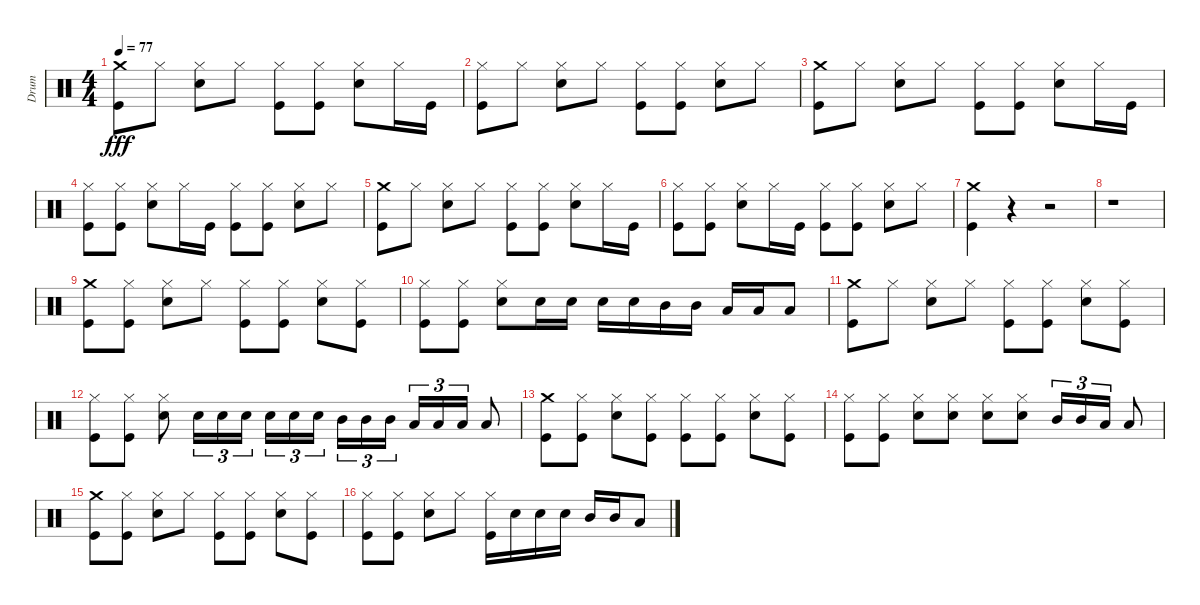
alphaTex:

\track ("Drum" "Drum") {instrument percussion}
\staff {score}
\articulation defaults
\ts (4 4)
\tempo 77
\clef neutral
\ks c
("Crash medium (hit)" "Kick (hit)").8{dy fff} "Hi-Hat (closed)".8 ("Hi-Hat (closed)" "Snare (hit) 2").8 "Hi-Hat (closed)".8 ("Hi-Hat (closed)" "Kick (hit)").8 ("Hi-Hat (closed)" "Kick (hit)").8 ("Hi-Hat (closed)" "Snare (hit) 2").8 "Hi-Hat (closed)".16 "Kick (hit)".16 |
("Hi-Hat (closed)" "Kick (hit)").8 "Hi-Hat (closed)".8 ("Hi-Hat (closed)" "Snare (hit) 2").8 "Hi-Hat (closed)".8 ("Hi-Hat (closed)" "Kick (hit)").8 ("Hi-Hat (closed)" "Kick (hit)").8 ("Hi-Hat (closed)" "Snare (hit) 2").8 "Hi-Hat (closed)".8 |
("Crash medium (hit)" "Kick (hit)").8 "Hi-Hat (closed)".8 ("Hi-Hat (closed)" "Snare (hit) 2").8 "Hi-Hat (closed)".8 ("Hi-Hat (closed)" "Kick (hit)").8 ("Hi-Hat (closed)" "Kick (hit)").8 ("Hi-Hat (closed)" "Snare (hit) 2").8 "Hi-Hat (closed)".16 "Kick (hit)".16 |
("Hi-Hat (closed)" "Kick (hit)").8 ("Hi-Hat (closed)" "Kick (hit)").8 ("Hi-Hat (closed)" "Snare (hit) 2").8 "Hi-Hat (closed)".16 "Kick (hit)".16 ("Hi-Hat (closed)" "Kick (hit)").8 ("Hi-Hat (closed)" "Kick (hit)").8 ("Hi-Hat (closed)" "Snare (hit) 2").8 "Hi-Hat (closed)".8 |
("Crash medium (hit)" "Kick (hit)").8 "Hi-Hat (closed)".8 ("Hi-Hat (closed)" "Snare (hit) 2").8 "Hi-Hat (closed)".8 ("Hi-Hat (closed)" "Kick (hit)").8 ("Hi-Hat (closed)" "Kick (hit)").8 ("Hi-Hat (closed)" "Snare (hit) 2").8 "Hi-Hat (closed)".16 "Kick (hit)".16 |
("Hi-Hat (closed)" "Kick (hit)").8 ("Hi-Hat (closed)" "Kick (hit)").8 ("Hi-Hat (closed)" "Snare (hit) 2").8 "Hi-Hat (closed)".16 "Kick (hit)".16 ("Hi-Hat (closed)" "Kick (hit)").8 ("Hi-Hat (closed)" "Kick (hit)").8 ("Hi-Hat (closed)" "Snare (hit) 2").8 "Hi-Hat (closed)".8 |
("Crash medium (hit)" "Kick (hit)").4 r.4 r.2 |
r.1 |
("Crash medium (hit)" "Kick (hit)").8 ("Hi-Hat (closed)" "Kick (hit)").8 ("Hi-Hat (closed)" "Snare (hit) 2").8 "Hi-Hat (closed)".8 ("Hi-Hat (closed)" "Kick (hit)").8 ("Hi-Hat (closed)" "Kick (hit)").8 ("Hi-Hat (closed)" "Snare (hit) 2").8 ("Hi-Hat (closed)" "Kick (hit)").8 |
("Hi-Hat (closed)" "Kick (hit)").8 ("Hi-Hat (closed)" "Kick (hit)").8 ("Hi-Hat (closed)" "Snare (hit) 2").8 "Snare (hit) 2".16 "Snare (hit) 2".16 "Snare (hit) 2".16 "Snare (hit) 2".16 "Mid Tom (hit)".16 "Mid Tom (hit)".16 "Low Tom (hit)".16 "Low Tom (hit)".16 "Low Tom (hit)".8 |
("Crash medium (hit)" "Kick (hit)").8 "Hi-Hat (closed)".8 ("Hi-Hat (closed)" "Snare (hit) 2").8 "Hi-Hat (closed)".8 ("Hi-Hat (closed)" "Kick (hit)").8 ("Hi-Hat (closed)" "Kick (hit)").8 ("Hi-Hat (closed)" "Snare (hit) 2").8 ("Hi-Hat (closed)" "Kick (hit)").8 |
("Hi-Hat (closed)" "Kick (hit)").8 ("Hi-Hat (closed)" "Kick (hit)").8 ("Hi-Hat (closed)" "Snare (hit) 2").8 "Snare (hit) 2".16{tu (3 2)} "Snare (hit) 2".16{tu (3 2)} "Snare (hit) 2".16{tu (3 2)} "Snare (hit) 2".16{tu (3 2)} "Snare (hit) 2".16{tu (3 2)} "Snare (hit) 2".16{tu (3 2)} "Mid Tom (hit)".16{tu (3 2)} "Mid Tom (hit)".16{tu (3 2)} "Mid Tom (hit)".16{tu (3 2)} "Low Tom (hit)".16{tu (3 2)} "Low Tom (hit)".16{tu (3 2)} "Low Tom (hit)".16{tu (3 2)} "Low Tom (hit)".8 |
("Crash medium (hit)" "Kick (hit)").8 ("Hi-Hat (closed)" "Kick (hit)").8 ("Hi-Hat (closed)" "Snare (hit) 2").8 ("Hi-Hat (closed)" "Kick (hit)").8 ("Hi-Hat (closed)" "Kick (hit)").8 ("Hi-Hat (closed)" "Kick (hit)").8 ("Hi-Hat (closed)" "Snare (hit) 2").8 ("Hi-Hat (closed)" "Kick (hit)").8 |
("Hi-Hat (closed)" "Kick (hit)").8 ("Hi-Hat (closed)" "Kick (hit)").8 ("Hi-Hat (closed)" "Snare (hit) 2").8 ("Hi-Hat (closed)" "Snare (hit) 2").8 ("Hi-Hat (closed)" "Snare (hit) 2").8 ("Hi-Hat (closed)" "Snare (hit) 2").8 "Mid Tom (hit)".16{tu (3 2)} "Mid Tom (hit)".16{tu (3 2)} "Low Tom (hit)".16{tu (3 2)} "Low Tom (hit)".8 |
("Crash medium (hit)" "Kick (hit)").8 ("Hi-Hat (closed)" "Kick (hit)").8 ("Hi-Hat (closed)" "Snare (hit) 2").8 "Hi-Hat (closed)".8 ("Hi-Hat (closed)" "Kick (hit)").8 ("Hi-Hat (closed)" "Kick (hit)").8 ("Hi-Hat (closed)" "Snare (hit) 2").8 ("Hi-Hat (closed)" "Kick (hit)").8 |
("Hi-Hat (closed)" "Kick (hit)").8 ("Hi-Hat (closed)" "Kick (hit)").8 ("Hi-Hat (closed)" "Snare (hit) 2").8 "Hi-Hat (closed)".8 ("Hi-Hat (closed)" "Kick (hit)").16 "Snare (hit) 2".16 "Snare (hit) 2".16 "Snare (hit) 2".16 "Mid Tom (hit)".16 "Mid Tom (hit)".16 "Low Tom (hit)".8
